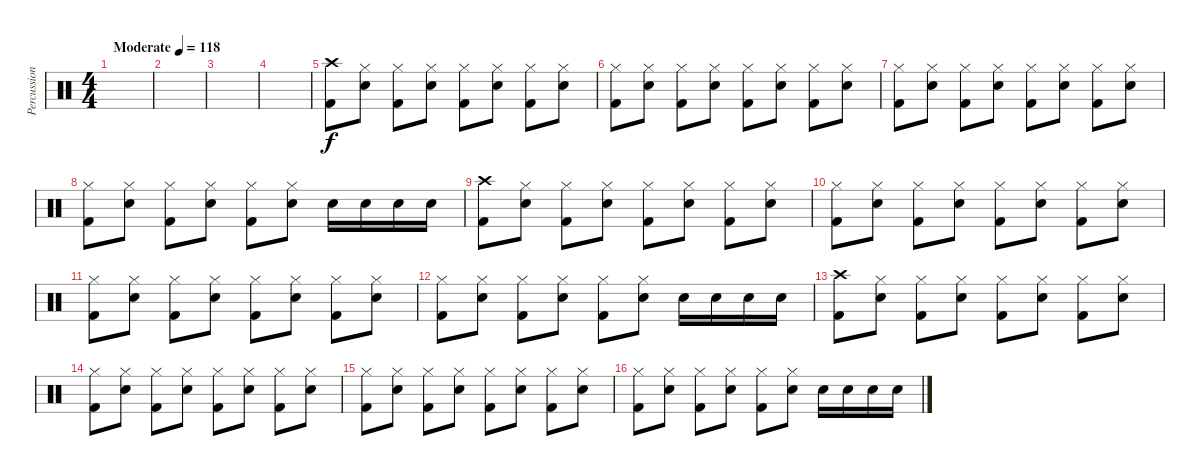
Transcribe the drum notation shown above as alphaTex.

\track ("Percussion" "Percussion") {instrument percussion}
\staff {score}
\articulation defaults
\ts (4 4)
\tempo (118 "Moderate")
\clef neutral
\ks c
|
|
|
|
("Crash high (hit)" "Kick (hit) 2").8 ("Hi-Hat (closed)" "Snare (hit) 2").8 ("Hi-Hat (closed)" "Kick (hit) 2").8 ("Hi-Hat (closed)" "Snare (hit) 2").8 ("Hi-Hat (closed)" "Kick (hit) 2").8 ("Hi-Hat (closed)" "Snare (hit) 2").8 ("Hi-Hat (closed)" "Kick (hit) 2").8 ("Hi-Hat (closed)" "Snare (hit) 2").8 |
("Hi-Hat (closed)" "Kick (hit) 2").8 ("Hi-Hat (closed)" "Snare (hit) 2").8 ("Hi-Hat (closed)" "Kick (hit) 2").8 ("Hi-Hat (closed)" "Snare (hit) 2").8 ("Hi-Hat (closed)" "Kick (hit) 2").8 ("Hi-Hat (closed)" "Snare (hit) 2").8 ("Hi-Hat (closed)" "Kick (hit) 2").8 ("Hi-Hat (closed)" "Snare (hit) 2").8 |
("Hi-Hat (closed)" "Kick (hit) 2").8 ("Hi-Hat (closed)" "Snare (hit) 2").8 ("Hi-Hat (closed)" "Kick (hit) 2").8 ("Hi-Hat (closed)" "Snare (hit) 2").8 ("Hi-Hat (closed)" "Kick (hit) 2").8 ("Hi-Hat (closed)" "Snare (hit) 2").8 ("Hi-Hat (closed)" "Kick (hit) 2").8 ("Hi-Hat (closed)" "Snare (hit) 2").8 |
("Hi-Hat (closed)" "Kick (hit) 2").8 ("Hi-Hat (closed)" "Snare (hit) 2").8 ("Hi-Hat (closed)" "Kick (hit) 2").8 ("Hi-Hat (closed)" "Snare (hit) 2").8 ("Hi-Hat (closed)" "Kick (hit) 2").8 ("Hi-Hat (closed)" "Snare (hit) 2").8 "Snare (hit) 2".16 "Snare (hit) 2".16 "Snare (hit) 2".16 "Snare (hit) 2".16 |
("Crash high (hit)" "Kick (hit) 2").8 ("Hi-Hat (closed)" "Snare (hit) 2").8 ("Hi-Hat (closed)" "Kick (hit) 2").8 ("Hi-Hat (closed)" "Snare (hit) 2").8 ("Hi-Hat (closed)" "Kick (hit) 2").8 ("Hi-Hat (closed)" "Snare (hit) 2").8 ("Hi-Hat (closed)" "Kick (hit) 2").8 ("Hi-Hat (closed)" "Snare (hit) 2").8 |
("Hi-Hat (closed)" "Kick (hit) 2").8 ("Hi-Hat (closed)" "Snare (hit) 2").8 ("Hi-Hat (closed)" "Kick (hit) 2").8 ("Hi-Hat (closed)" "Snare (hit) 2").8 ("Hi-Hat (closed)" "Kick (hit) 2").8 ("Hi-Hat (closed)" "Snare (hit) 2").8 ("Hi-Hat (closed)" "Kick (hit) 2").8 ("Hi-Hat (closed)" "Snare (hit) 2").8 |
("Hi-Hat (closed)" "Kick (hit) 2").8 ("Hi-Hat (closed)" "Snare (hit) 2").8 ("Hi-Hat (closed)" "Kick (hit) 2").8 ("Hi-Hat (closed)" "Snare (hit) 2").8 ("Hi-Hat (closed)" "Kick (hit) 2").8 ("Hi-Hat (closed)" "Snare (hit) 2").8 ("Hi-Hat (closed)" "Kick (hit) 2").8 ("Hi-Hat (closed)" "Snare (hit) 2").8 |
("Hi-Hat (closed)" "Kick (hit) 2").8 ("Hi-Hat (closed)" "Snare (hit) 2").8 ("Hi-Hat (closed)" "Kick (hit) 2").8 ("Hi-Hat (closed)" "Snare (hit) 2").8 ("Hi-Hat (closed)" "Kick (hit) 2").8 ("Hi-Hat (closed)" "Snare (hit) 2").8 "Snare (hit) 2".16 "Snare (hit) 2".16 "Snare (hit) 2".16 "Snare (hit) 2".16 |
("Crash high (hit)" "Kick (hit) 2").8 ("Hi-Hat (closed)" "Snare (hit) 2").8 ("Hi-Hat (closed)" "Kick (hit) 2").8 ("Hi-Hat (closed)" "Snare (hit) 2").8 ("Hi-Hat (closed)" "Kick (hit) 2").8 ("Hi-Hat (closed)" "Snare (hit) 2").8 ("Hi-Hat (closed)" "Kick (hit) 2").8 ("Hi-Hat (closed)" "Snare (hit) 2").8 |
("Hi-Hat (closed)" "Kick (hit) 2").8 ("Hi-Hat (closed)" "Snare (hit) 2").8 ("Hi-Hat (closed)" "Kick (hit) 2").8 ("Hi-Hat (closed)" "Snare (hit) 2").8 ("Hi-Hat (closed)" "Kick (hit) 2").8 ("Hi-Hat (closed)" "Snare (hit) 2").8 ("Hi-Hat (closed)" "Kick (hit) 2").8 ("Hi-Hat (closed)" "Snare (hit) 2").8 |
("Hi-Hat (closed)" "Kick (hit) 2").8 ("Hi-Hat (closed)" "Snare (hit) 2").8 ("Hi-Hat (closed)" "Kick (hit) 2").8 ("Hi-Hat (closed)" "Snare (hit) 2").8 ("Hi-Hat (closed)" "Kick (hit) 2").8 ("Hi-Hat (closed)" "Snare (hit) 2").8 ("Hi-Hat (closed)" "Kick (hit) 2").8 ("Hi-Hat (closed)" "Snare (hit) 2").8 |
("Hi-Hat (closed)" "Kick (hit) 2").8 ("Hi-Hat (closed)" "Snare (hit) 2").8 ("Hi-Hat (closed)" "Kick (hit) 2").8 ("Hi-Hat (closed)" "Snare (hit) 2").8 ("Hi-Hat (closed)" "Kick (hit) 2").8 ("Hi-Hat (closed)" "Snare (hit) 2").8 "Snare (hit) 2".16 "Snare (hit) 2".16 "Snare (hit) 2".16 "Snare (hit) 2".16
